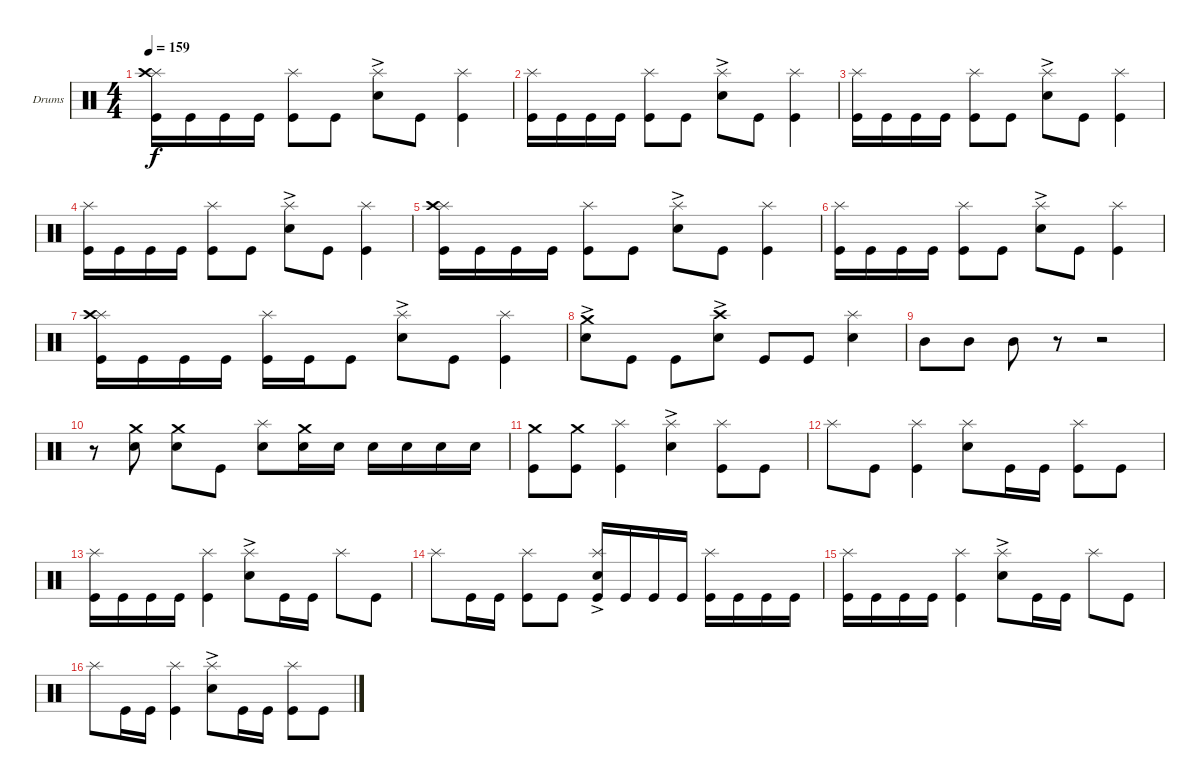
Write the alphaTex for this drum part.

\defaultSystemsLayout 4
\bracketExtendMode groupsimilarinstruments
\firstSystemTrackNameOrientation horizontal
\otherSystemsTrackNameOrientation horizontal
\track ("Drumkit" "Drums") {instrument percussion}
\staff {score}
\articulation defaults
\ts (4 4)
\tempo 159
\clef neutral
\scale
0.404568
\ks c
("Kick (hit)" "Splash (hit)" "Crash high (hit)").16{dy f} "Kick (hit)".16 "Kick (hit)".16 "Kick (hit)".16 ("Kick (hit)" "Splash (hit)").8 "Kick (hit)".8 ("Snare (hit) 2"{ac} "Splash (hit)").8 "Kick (hit)".8 ("Kick (hit)" "Splash (hit)").4 |
("Kick (hit)" "Splash (hit)").16 "Kick (hit)".16 "Kick (hit)".16 "Kick (hit)".16 ("Kick (hit)" "Splash (hit)").8 "Kick (hit)".8 ("Snare (hit) 2"{ac} "Splash (hit)").8 "Kick (hit)".8 ("Kick (hit)" "Splash (hit)").4 |
("Kick (hit)" "Splash (hit)").16 "Kick (hit)".16 "Kick (hit)".16 "Kick (hit)".16 ("Kick (hit)" "Splash (hit)").8 "Kick (hit)".8 ("Snare (hit) 2"{ac} "Splash (hit)").8 "Kick (hit)".8 ("Kick (hit)" "Splash (hit)").4 |
("Kick (hit)" "Splash (hit)").16 "Kick (hit)".16 "Kick (hit)".16 "Kick (hit)".16 ("Kick (hit)" "Splash (hit)").8 "Kick (hit)".8 ("Snare (hit) 2"{ac} "Splash (hit)").8 "Kick (hit)".8 ("Kick (hit)" "Splash (hit)").4 |
("Kick (hit)" "Splash (hit)" "Crash high (hit)").16 "Kick (hit)".16 "Kick (hit)".16 "Kick (hit)".16 ("Kick (hit)" "Splash (hit)").8 "Kick (hit)".8 ("Snare (hit) 2"{ac} "Splash (hit)").8 "Kick (hit)".8 ("Kick (hit)" "Splash (hit)").4 |
("Kick (hit)" "Splash (hit)").16 "Kick (hit)".16 "Kick (hit)".16 "Kick (hit)".16 ("Kick (hit)" "Splash (hit)").8 "Kick (hit)".8 ("Snare (hit) 2"{ac} "Splash (hit)").8 "Kick (hit)".8 ("Kick (hit)" "Splash (hit)").4 |
("Kick (hit)" "Splash (hit)" "Crash high (hit)").16 "Kick (hit)".16 "Kick (hit)".16 "Kick (hit)".16 ("Kick (hit)" "Splash (hit)").16 "Kick (hit)".16 "Kick (hit)".8 ("Snare (hit) 2"{ac} "Splash (hit)").8 "Kick (hit)".8 ("Kick (hit)" "Splash (hit)").4 |
("Snare (hit) 2"{ac} "Crash medium (hit)").8 "Kick (hit)".8 "Kick (hit)".8 ("Snare (hit) 2"{ac} "Crash high (hit)").8 "Kick (hit)".8 "Kick (hit)".8 ("Snare (hit) 2" "Splash (hit)").4 |
"Mid Tom (hit)".8 "Mid Tom (hit)".8 "Mid Tom (hit)".8 r.8 r.2 |
r.8 ("Snare (hit) 2" "Crash medium (hit)").8 ("Snare (hit) 2" "Crash medium (hit)").8 "Kick (hit)".8 ("Snare (hit) 2" "Splash (hit)").8 ("Snare (hit) 2" "Crash medium (hit)").16 "Snare (hit) 2".16 "Snare (hit) 2".16 "Snare (hit) 2".16 "Snare (hit) 2".16 "Snare (hit) 2".16 |
\scale
0.496434 ("Kick (hit)" "Crash medium (hit)").8 ("Kick (hit)" "Crash medium (hit)").8 ("Kick (hit)" "Splash (hit)").4 ("Snare (hit) 2"{ac} "Splash (hit)").4 ("Splash (hit)" "Kick (hit)").8 "Kick (hit)".8 |
\scale
0.503875 "Splash (hit)".8 "Kick (hit)".8 ("Kick (hit)" "Splash (hit)").4 ("Snare (hit) 2" "Splash (hit)").8 "Kick (hit)".16 "Kick (hit)".16 ("Kick (hit)" "Splash (hit)").8 "Kick (hit)".8 |
("Kick (hit)" "Splash (hit)").16 "Kick (hit)".16 "Kick (hit)".16 "Kick (hit)".16 ("Kick (hit)" "Splash (hit)").4 ("Snare (hit) 2"{ac} "Splash (hit)").8 "Kick (hit)".16 "Kick (hit)".16 "Splash (hit)".8 "Kick (hit)".8 |
"Splash (hit)".8 "Kick (hit)".16 "Kick (hit)".16 ("Kick (hit)" "Splash (hit)").8 "Kick (hit)".8 ("Snare (hit) 2"{ac} "Kick (hit)" "Splash (hit)").16 "Kick (hit)".16 "Kick (hit)".16 "Kick (hit)".16 ("Kick (hit)" "Splash (hit)").16 "Kick (hit)".16 "Kick (hit)".16 "Kick (hit)".16 |
("Kick (hit)" "Splash (hit)").16 "Kick (hit)".16 "Kick (hit)".16 "Kick (hit)".16 ("Kick (hit)" "Splash (hit)").4 ("Snare (hit) 2"{ac} "Splash (hit)").8 "Kick (hit)".16 "Kick (hit)".16 "Splash (hit)".8 "Kick (hit)".8 |
"Splash (hit)".8 "Kick (hit)".16 "Kick (hit)".16 ("Kick (hit)" "Splash (hit)").4 ("Snare (hit) 2"{ac} "Splash (hit)").8 "Kick (hit)".16 "Kick (hit)".16 ("Kick (hit)" "Splash (hit)").8 "Kick (hit)".8
